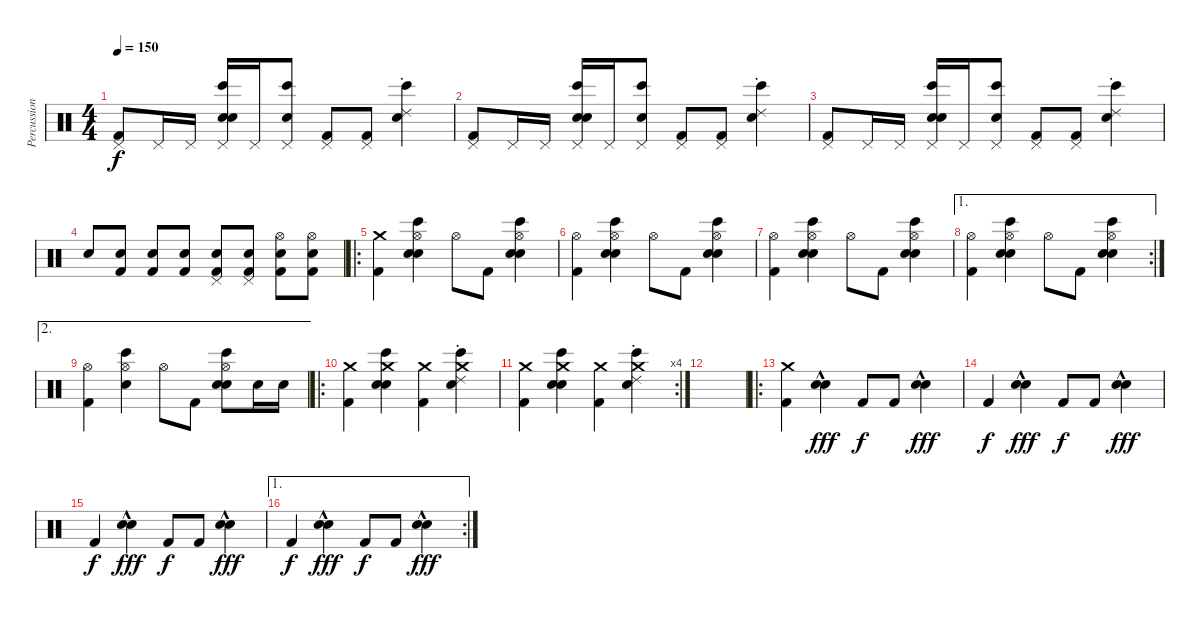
\track ("Percussion" "Percussion") {instrument percussion}
\staff {score}
\articulation defaults
\ts (4 4)
\tempo 150
\clef neutral
\ks c
("Pedal Hi-Hat (hit)" "Kick (hit) 2").8{dy f} "Pedal Hi-Hat (hit)".16 "Pedal Hi-Hat (hit)".16 ("Bongo High (hit)" "Hand Clap (hit)" "Pedal Hi-Hat (hit)" "Snare (hit) 2").16 "Pedal Hi-Hat (hit)".16 ("Bongo High (hit)" "Pedal Hi-Hat (hit)" "Hand Clap (hit)").8 ("Pedal Hi-Hat (hit)" "Kick (hit) 2").8 ("Pedal Hi-Hat (hit)" "Kick (hit) 2").8 ("Ride (choke) 2" "Bongo High (hit)" "Snare (hit) 2").4 |
("Pedal Hi-Hat (hit)" "Kick (hit) 2").8 "Pedal Hi-Hat (hit)".16 "Pedal Hi-Hat (hit)".16 ("Bongo High (hit)" "Hand Clap (hit)" "Pedal Hi-Hat (hit)" "Snare (hit) 2").16 "Pedal Hi-Hat (hit)".16 ("Bongo High (hit)" "Pedal Hi-Hat (hit)" "Hand Clap (hit)").8 ("Pedal Hi-Hat (hit)" "Kick (hit) 2").8 ("Pedal Hi-Hat (hit)" "Kick (hit) 2").8 ("Ride (choke) 2" "Bongo High (hit)" "Snare (hit) 2").4 |
("Pedal Hi-Hat (hit)" "Kick (hit) 2").8 "Pedal Hi-Hat (hit)".16 "Pedal Hi-Hat (hit)".16 ("Bongo High (hit)" "Hand Clap (hit)" "Pedal Hi-Hat (hit)" "Snare (hit) 2").16 "Pedal Hi-Hat (hit)".16 ("Bongo High (hit)" "Pedal Hi-Hat (hit)" "Hand Clap (hit)").8 ("Pedal Hi-Hat (hit)" "Kick (hit) 2").8 ("Pedal Hi-Hat (hit)" "Kick (hit) 2").8 ("Ride (choke) 2" "Bongo High (hit)" "Snare (hit) 2").4 |
"Snare (hit) 2".8{volume 7} ("Snare (hit) 2" "Kick (hit) 2").8{volume 14} ("Snare (hit) 2" "Kick (hit) 2").8 ("Snare (hit) 2" "Kick (hit) 2").8 ("Pedal Hi-Hat (hit)" "Snare (hit) 2" "Kick (hit) 2").8 ("Pedal Hi-Hat (hit)" "Snare (hit) 2" "Kick (hit) 2").8 ("Hi-Hat (open)" "Snare (hit) 2" "Kick (hit) 2").8 ("Hi-Hat (open)" "Snare (hit) 2" "Kick (hit) 2").8 |
\ro
("Crash medium (hit)" "Kick (hit) 2").4 ("Hi-Hat (open)" "Hand Clap (hit)" "Bongo High (hit)" "Snare (hit) 2").4 "Hi-Hat (open)".8 "Kick (hit) 2".8 ("Hi-Hat (open)" "Hand Clap (hit)" "Bongo High (hit)" "Snare (hit) 2").4 |
("Hi-Hat (open)" "Kick (hit) 2").4 ("Hi-Hat (open)" "Hand Clap (hit)" "Bongo High (hit)" "Snare (hit) 2").4 "Hi-Hat (open)".8 "Kick (hit) 2".8 ("Hi-Hat (open)" "Hand Clap (hit)" "Bongo High (hit)" "Snare (hit) 2").4 |
("Hi-Hat (open)" "Kick (hit) 2").4 ("Hi-Hat (open)" "Hand Clap (hit)" "Bongo High (hit)" "Snare (hit) 2").4 "Hi-Hat (open)".8 "Kick (hit) 2".8 ("Hi-Hat (open)" "Hand Clap (hit)" "Bongo High (hit)" "Snare (hit) 2").4 |
\ae 1
\rc 2
("Hi-Hat (open)" "Kick (hit) 2").4 ("Hi-Hat (open)" "Hand Clap (hit)" "Bongo High (hit)" "Snare (hit) 2").4 "Hi-Hat (open)".8 "Kick (hit) 2".8 ("Hi-Hat (open)" "Hand Clap (hit)" "Bongo High (hit)" "Snare (hit) 2").4 |
\ae 2
("Hi-Hat (open)" "Kick (hit) 2").4 ("Hi-Hat (open)" "Bongo High (hit)" "Snare (hit) 2").4 "Hi-Hat (open)".8 "Kick (hit) 2".8 ("Hi-Hat (open)" "Hand Clap (hit)" "Bongo High (hit)" "Snare (hit) 2").8 "Snare (hit) 2".16 "Snare (hit) 2".16 |
\ro
("Crash medium (hit)" "Kick (hit) 2").4 ("Crash medium (hit)" "Bongo High (hit)" "Hand Clap (hit)" "Snare (hit) 2").4 ("Crash medium (hit)" "Kick (hit) 2").4 ("Crash medium (hit)" "Bongo High (hit)" "Ride (choke) 2" "Snare (hit) 2").4 |
\rc 4
("Crash medium (hit)" "Kick (hit) 2").4 ("Crash medium (hit)" "Bongo High (hit)" "Hand Clap (hit)" "Snare (hit) 2").4 ("Crash medium (hit)" "Kick (hit) 2").4 ("Crash medium (hit)" "Bongo High (hit)" "Ride (choke) 2" "Snare (hit) 2").4 |
|
\ro
("Crash medium (hit)" "Kick (hit) 2").4 ("Hand Clap (hit)"{hac} "Snare (hit) 2").4{dy fff} "Kick (hit) 2".8{dy f} "Kick (hit) 2".8 ("Hand Clap (hit)"{hac} "Snare (hit) 2").4{dy fff} |
"Kick (hit) 2".4{dy f} ("Hand Clap (hit)"{hac} "Snare (hit) 2").4{dy fff} "Kick (hit) 2".8{dy f} "Kick (hit) 2".8 ("Hand Clap (hit)"{hac} "Snare (hit) 2").4{dy fff} |
"Kick (hit) 2".4{dy f} ("Hand Clap (hit)"{hac} "Snare (hit) 2").4{dy fff} "Kick (hit) 2".8{dy f} "Kick (hit) 2".8 ("Hand Clap (hit)"{hac} "Snare (hit) 2").4{dy fff} |
\ae 1
\rc 2 "Kick (hit) 2".4{dy f}
("Hand Clap (hit)"{hac} "Snare (hit) 2").4{dy fff} "Kick (hit) 2".8{dy f} "Kick (hit) 2".8 ("Hand Clap (hit)"{hac} "Snare (hit) 2").4{dy fff}
